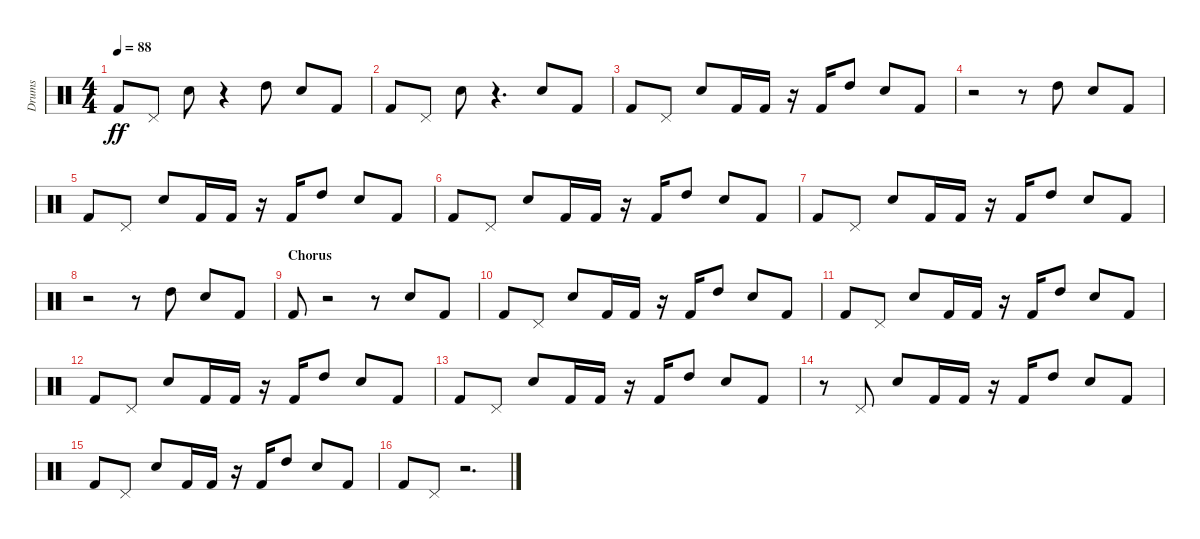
\track ("Drums" "Drums") {solo instrument percussion}
\staff {score}
\articulation defaults
\ts (4 4)
\tempo 88
\clef neutral
\ks aminor "Kick (hit) 2".8{dy ff} "Pedal Hi-Hat (hit)".8 "Snare (hit) 2".8
r.4 "High Tom (hit)".8 "Snare (hit) 2".8 "Kick (hit) 2".8 |
"Kick (hit) 2".8 "Pedal Hi-Hat (hit)".8 "Snare (hit) 2".8 r.4{d} "Snare (hit) 2".8 "Kick (hit) 2".8 |
"Kick (hit) 2".8 "Pedal Hi-Hat (hit)".8 "Snare (hit) 2".8 "Kick (hit) 2".16 "Kick (hit) 2".16 r.16 "Kick (hit) 2".16 "High Tom (hit)".8 "Snare (hit) 2".8 "Kick (hit) 2".8 |
r.2 r.8 "High Tom (hit)".8 "Snare (hit) 2".8 "Kick (hit) 2".8 |
"Kick (hit) 2".8 "Pedal Hi-Hat (hit)".8 "Snare (hit) 2".8 "Kick (hit) 2".16 "Kick (hit) 2".16 r.16 "Kick (hit) 2".16 "High Tom (hit)".8 "Snare (hit) 2".8 "Kick (hit) 2".8 |
"Kick (hit) 2".8 "Pedal Hi-Hat (hit)".8 "Snare (hit) 2".8 "Kick (hit) 2".16 "Kick (hit) 2".16 r.16 "Kick (hit) 2".16 "High Tom (hit)".8 "Snare (hit) 2".8 "Kick (hit) 2".8 |
"Kick (hit) 2".8 "Pedal Hi-Hat (hit)".8 "Snare (hit) 2".8 "Kick (hit) 2".16 "Kick (hit) 2".16 r.16 "Kick (hit) 2".16 "High Tom (hit)".8 "Snare (hit) 2".8 "Kick (hit) 2".8 |
r.2 r.8 "High Tom (hit)".8 "Snare (hit) 2".8 "Kick (hit) 2".8 |
\section ("" "Chorus")
"Kick (hit) 2".8 r.2 r.8 "Snare (hit) 2".8 "Kick (hit) 2".8 |
"Kick (hit) 2".8 "Pedal Hi-Hat (hit)".8 "Snare (hit) 2".8 "Kick (hit) 2".16 "Kick (hit) 2".16 r.16 "Kick (hit) 2".16 "High Tom (hit)".8 "Snare (hit) 2".8 "Kick (hit) 2".8 |
"Kick (hit) 2".8 "Pedal Hi-Hat (hit)".8 "Snare (hit) 2".8 "Kick (hit) 2".16 "Kick (hit) 2".16 r.16 "Kick (hit) 2".16 "High Tom (hit)".8 "Snare (hit) 2".8 "Kick (hit) 2".8 |
"Kick (hit) 2".8 "Pedal Hi-Hat (hit)".8 "Snare (hit) 2".8 "Kick (hit) 2".16 "Kick (hit) 2".16 r.16 "Kick (hit) 2".16 "High Tom (hit)".8 "Snare (hit) 2".8 "Kick (hit) 2".8 |
"Kick (hit) 2".8 "Pedal Hi-Hat (hit)".8 "Snare (hit) 2".8 "Kick (hit) 2".16 "Kick (hit) 2".16 r.16 "Kick (hit) 2".16 "High Tom (hit)".8 "Snare (hit) 2".8 "Kick (hit) 2".8 |
r.8 "Pedal Hi-Hat (hit)".8 "Snare (hit) 2".8 "Kick (hit) 2".16 "Kick (hit) 2".16 r.16 "Kick (hit) 2".16 "High Tom (hit)".8 "Snare (hit) 2".8 "Kick (hit) 2".8 |
"Kick (hit) 2".8 "Pedal Hi-Hat (hit)".8 "Snare (hit) 2".8 "Kick (hit) 2".16 "Kick (hit) 2".16 r.16 "Kick (hit) 2".16 "High Tom (hit)".8 "Snare (hit) 2".8 "Kick (hit) 2".8 |
"Kick (hit) 2".8 "Pedal Hi-Hat (hit)".8 r.2{d}
